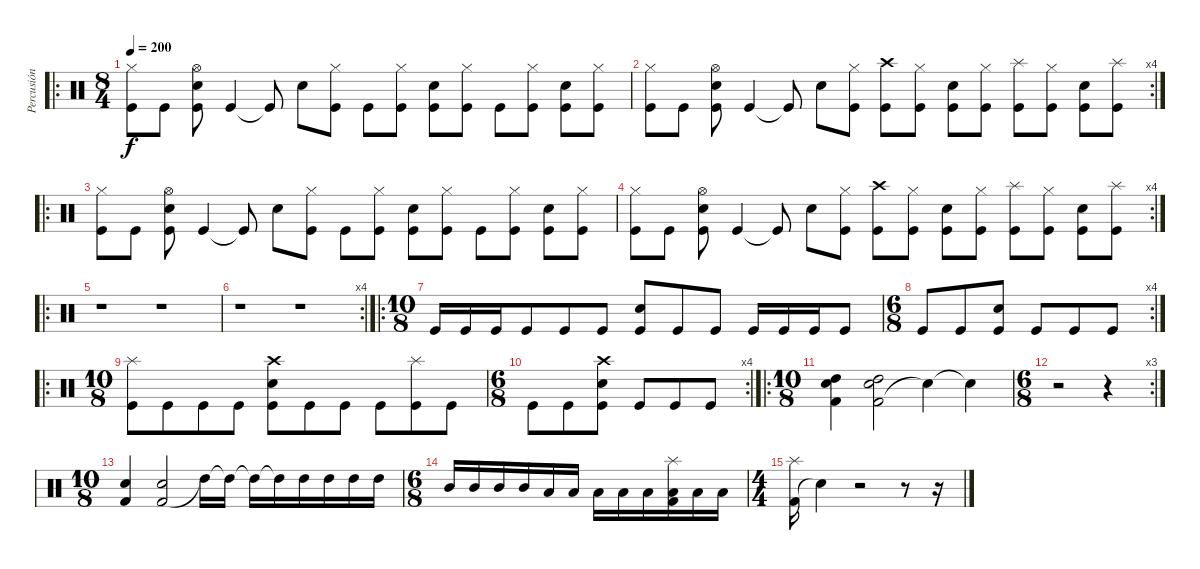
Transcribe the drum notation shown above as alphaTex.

\track ("Percusión" "Percusión") {instrument percussion}
\staff {score}
\articulation defaults
\ro
\ts (8 4)
\tempo 200
\clef neutral
\ks c
("Kick (hit)" "Hi-Hat (closed)").8{dy f} "Kick (hit)".8 ("Kick (hit)" "Snare (hit) 2" "Hi-Hat (open)").8 "Kick (hit)".4 "Kick (hit)"{t}.8 "Snare (hit) 2".8 ("Kick (hit)" "Hi-Hat (closed)").8 "Kick (hit)".8 ("Kick (hit)" "Hi-Hat (closed)").8 ("Kick (hit)" "Snare (hit) 2").8 ("Kick (hit)" "Hi-Hat (closed)").8 "Kick (hit)".8 ("Kick (hit)" "Hi-Hat (closed)").8 ("Kick (hit)" "Snare (hit) 2").8 ("Kick (hit)" "Hi-Hat (closed)").8 |
\rc 4
("Kick (hit)" "Hi-Hat (closed)").8 "Kick (hit)".8 ("Kick (hit)" "Snare (hit) 2" "Hi-Hat (open)").8 "Kick (hit)".4 "Kick (hit)"{t}.8 "Snare (hit) 2".8 ("Kick (hit)" "Hi-Hat (closed)").8 ("Kick (hit)" "Crash high (hit)").8 ("Kick (hit)" "Hi-Hat (closed)").8 ("Kick (hit)" "Snare (hit) 2").8 ("Kick (hit)" "Hi-Hat (closed)").8 ("Kick (hit)" "Splash (hit)").8 ("Kick (hit)" "Hi-Hat (closed)").8 ("Kick (hit)" "Snare (hit) 2").8 ("Kick (hit)" "Splash (hit)").8 |
\ro
("Kick (hit)" "Hi-Hat (closed)").8 "Kick (hit)".8 ("Kick (hit)" "Snare (hit) 2" "Hi-Hat (open)").8 "Kick (hit)".4 "Kick (hit)"{t}.8 "Snare (hit) 2".8 ("Kick (hit)" "Hi-Hat (closed)").8 "Kick (hit)".8 ("Kick (hit)" "Hi-Hat (closed)").8 ("Kick (hit)" "Snare (hit) 2").8 ("Kick (hit)" "Hi-Hat (closed)").8 "Kick (hit)".8 ("Kick (hit)" "Hi-Hat (closed)").8 ("Kick (hit)" "Snare (hit) 2").8 ("Kick (hit)" "Hi-Hat (closed)").8 |
\rc 4
("Kick (hit)" "Hi-Hat (closed)").8 "Kick (hit)".8 ("Kick (hit)" "Snare (hit) 2" "Hi-Hat (open)").8 "Kick (hit)".4 "Kick (hit)"{t}.8 "Snare (hit) 2".8 ("Kick (hit)" "Hi-Hat (closed)").8 ("Kick (hit)" "Crash high (hit)").8 ("Kick (hit)" "Hi-Hat (closed)").8 ("Kick (hit)" "Snare (hit) 2").8 ("Kick (hit)" "Hi-Hat (closed)").8 ("Kick (hit)" "Splash (hit)").8 ("Kick (hit)" "Hi-Hat (closed)").8 ("Kick (hit)" "Snare (hit) 2").8 ("Kick (hit)" "Splash (hit)").8 |
\ro
r.1 r.1 |
\rc 4
r.1 r.1 |
\ro
\ts (10 8)
"Kick (hit)".16 "Kick (hit)".16 "Kick (hit)".16 "Kick (hit)".8 "Kick (hit)".8 "Kick (hit)".8 ("Kick (hit)" "Snare (hit) 2").8 "Kick (hit)".8 "Kick (hit)".8 "Kick (hit)".16 "Kick (hit)".16 "Kick (hit)".16 "Kick (hit)".8 |
\rc 4
\ts (6 8)
"Kick (hit)".8 "Kick (hit)".8 ("Kick (hit)" "Snare (hit) 2").8 "Kick (hit)".8 "Kick (hit)".8 "Kick (hit)".8 |
\ro
\ts (10 8)
("Kick (hit)" "Splash (hit)").8 "Kick (hit)".8 "Kick (hit)".8 "Kick (hit)".8 ("Kick (hit)" "Snare (hit) 2" "Crash high (hit)").8 "Kick (hit)".8 "Kick (hit)".8 "Kick (hit)".8 ("Kick (hit)" "Splash (hit)").8 "Kick (hit)".8 |
\rc 4
\ts (6 8)
"Kick (hit)".8 "Kick (hit)".8 ("Kick (hit)" "Snare (hit) 2" "Crash high (hit)").8 "Kick (hit)".8 "Kick (hit)".8 "Kick (hit)".8 |
\ro
\ts (10 8)
("Kick (hit) 2" "Snare (hit) 2" "High Tom (hit)").4 ("Kick (hit) 2" "Snare (hit) 2" "High Tom (hit)").2 "Snare (hit)"{t}.4 "Snare (hit)"{t}.4 |
\rc 3
\ts (6 8)
r.2 r.4 |
\ts (10 8)
("Kick (hit) 2" "Snare (hit) 2").4 ("Kick (hit) 2" "Snare (hit) 2").2 "High Tom (hit)"{t}.16 "High Tom (hit)"{t}.16 "High Tom (hit)"{t}.16 "High Tom (hit)"{t}.16 "High Tom (hit)".16 "High Tom (hit)".16 "High Tom (hit)".16 "High Tom (hit)".16 |
\ts (6 8)
"Mid Tom (hit)".16 "Mid Tom (hit)".16 "Mid Tom (hit)".16 "Mid Tom (hit)".16 "Low Tom (hit)".16 "Low Tom (hit)".16 "Low Tom (hit)".16 "Low Tom (hit)".16 "Low Floor Tom (hit)".16 ("Kick (hit) 2" "Low Floor Tom (hit)" "Splash (hit)").16 "Low Floor Tom (hit)".16 "Low Floor Tom (hit)".16 |
\ts (4 4)
("Kick (hit) 2" "Splash (hit)").16 "Snare (hit)"{t}.4 r.2 r.8 r.16
